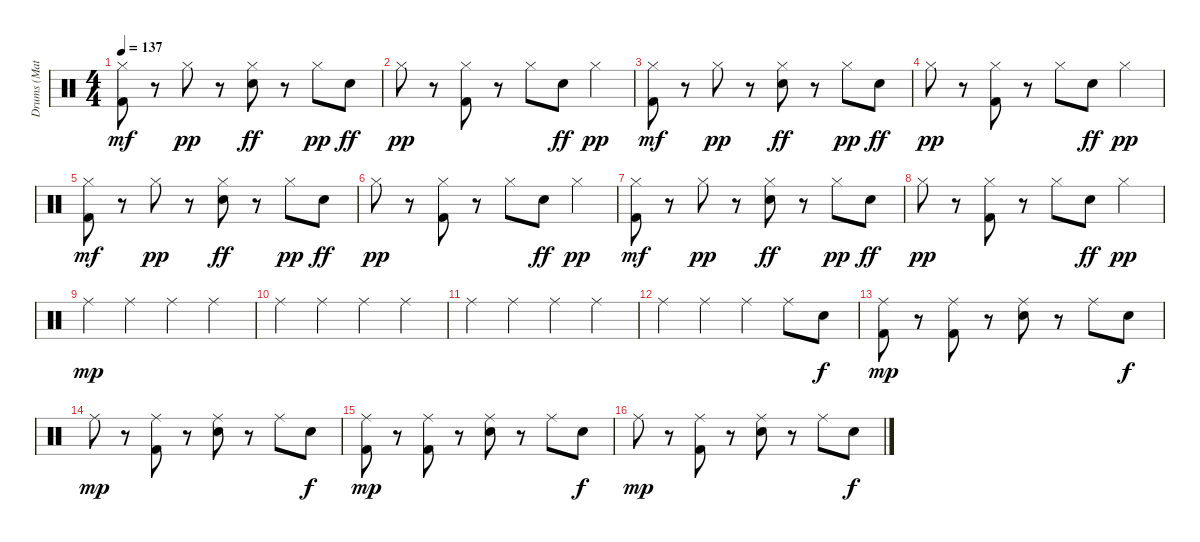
\track ("Drums (Matthias)" "Drums (Mat") {instrument percussion}
\staff {score}
\articulation defaults
\ts (4 4)
\tempo 137
\clef neutral
\ks c
("Hi-Hat (closed)" "Kick (hit) 2").8{dy mf} r.8 "Hi-Hat (closed)".8{dy pp} r.8 ("Hi-Hat (closed)" "Electric Snare (hit)").8{dy ff} r.8 "Hi-Hat (closed)".8{dy pp} "Electric Snare (hit)".8{dy ff} |
"Hi-Hat (closed)".8{dy pp} r.8 ("Hi-Hat (closed)" "Kick (hit) 2").8 r.8 "Hi-Hat (closed)".8 "Electric Snare (hit)".8{dy ff} "Hi-Hat (closed)".4{dy pp} |
("Hi-Hat (closed)" "Kick (hit) 2").8{dy mf} r.8 "Hi-Hat (closed)".8{dy pp} r.8 ("Hi-Hat (closed)" "Electric Snare (hit)").8{dy ff} r.8 "Hi-Hat (closed)".8{dy pp} "Electric Snare (hit)".8{dy ff} |
"Hi-Hat (closed)".8{dy pp} r.8 ("Hi-Hat (closed)" "Kick (hit) 2").8 r.8 "Hi-Hat (closed)".8 "Electric Snare (hit)".8{dy ff} "Hi-Hat (closed)".4{dy pp} |
("Hi-Hat (closed)" "Kick (hit) 2").8{dy mf} r.8 "Hi-Hat (closed)".8{dy pp} r.8 ("Hi-Hat (closed)" "Electric Snare (hit)").8{dy ff} r.8 "Hi-Hat (closed)".8{dy pp} "Electric Snare (hit)".8{dy ff} |
"Hi-Hat (closed)".8{dy pp} r.8 ("Hi-Hat (closed)" "Kick (hit) 2").8 r.8 "Hi-Hat (closed)".8 "Electric Snare (hit)".8{dy ff} "Hi-Hat (closed)".4{dy pp} |
("Hi-Hat (closed)" "Kick (hit) 2").8{dy mf} r.8 "Hi-Hat (closed)".8{dy pp} r.8 ("Hi-Hat (closed)" "Electric Snare (hit)").8{dy ff} r.8 "Hi-Hat (closed)".8{dy pp} "Electric Snare (hit)".8{dy ff} |
"Hi-Hat (closed)".8{dy pp} r.8 ("Hi-Hat (closed)" "Kick (hit) 2").8 r.8 "Hi-Hat (closed)".8 "Electric Snare (hit)".8{dy ff} "Hi-Hat (closed)".4{dy pp} |
"Ride (middle)".4{dy mp} "Ride (middle)".4 "Ride (middle)".4 "Ride (middle)".4 |
"Ride (middle)".4 "Ride (middle)".4 "Ride (middle)".4 "Ride (middle)".4 |
"Ride (middle)".4 "Ride (middle)".4 "Ride (middle)".4 "Ride (middle)".4 |
"Ride (middle)".4 "Ride (middle)".4 "Ride (middle)".4 "Ride (middle)".8 "Electric Snare (hit)".8{dy f} |
("Ride (middle)" "Kick (hit) 2").8{dy mp} r.8 ("Ride (middle)" "Kick (hit) 2").8 r.8 ("Ride (middle)" "Electric Snare (hit)").8 r.8 "Ride (middle)".8 "Electric Snare (hit)".8{dy f} |
"Ride (middle)".8{dy mp} r.8 ("Ride (middle)" "Kick (hit) 2").8 r.8 ("Ride (middle)" "Electric Snare (hit)").8 r.8 "Ride (middle)".8 "Electric Snare (hit)".8{dy f} |
("Ride (middle)" "Kick (hit) 2").8{dy mp} r.8 ("Ride (middle)" "Kick (hit) 2").8 r.8 ("Ride (middle)" "Electric Snare (hit)").8 r.8 "Ride (middle)".8 "Electric Snare (hit)".8{dy f} |
"Ride (middle)".8{dy mp} r.8 ("Ride (middle)" "Kick (hit) 2").8 r.8 ("Ride (middle)" "Electric Snare (hit)").8 r.8 "Ride (middle)".8 "Electric Snare (hit)".8{dy f}
